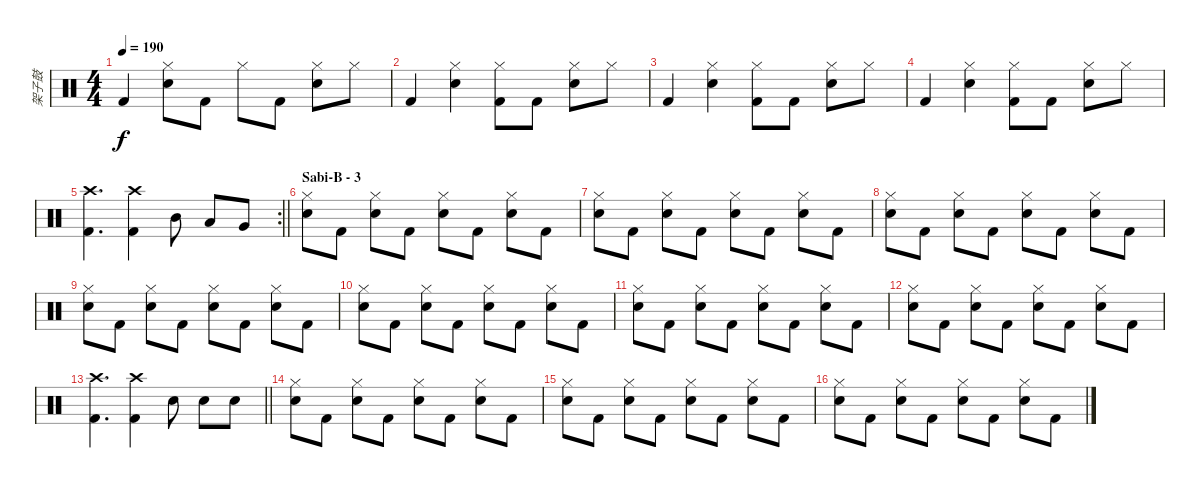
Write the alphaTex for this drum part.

\track ("架子鼓" "架子鼓") {instrument percussion}
\staff {score}
\articulation defaults
\ts (4 4)
\tempo 190
\clef neutral
\ks c "Kick (hit) 2".4{dy f}
("Hi-Hat (closed)" "Electric Snare (hit)").8 "Kick (hit) 2".8 "Hi-Hat (closed)".8 "Kick (hit) 2".8 ("Hi-Hat (closed)" "Electric Snare (hit)").8 "Hi-Hat (closed)".8 |
"Kick (hit) 2".4 ("Hi-Hat (closed)" "Electric Snare (hit)").4 ("Hi-Hat (closed)" "Kick (hit) 2").8 "Kick (hit) 2".8 ("Hi-Hat (closed)" "Electric Snare (hit)").8 "Hi-Hat (closed)".8 |
"Kick (hit) 2".4 ("Hi-Hat (closed)" "Electric Snare (hit)").4 ("Hi-Hat (closed)" "Kick (hit) 2").8 "Kick (hit) 2".8 ("Hi-Hat (closed)" "Electric Snare (hit)").8 "Hi-Hat (closed)".8 |
"Kick (hit) 2".4 ("Hi-Hat (closed)" "Electric Snare (hit)").4 ("Hi-Hat (closed)" "Kick (hit) 2").8 "Kick (hit) 2".8 ("Hi-Hat (closed)" "Electric Snare (hit)").8 "Hi-Hat (closed)".8 |
\rc 2
\barLineRight lightlight
("Crash high (hit)" "Kick (hit) 2").4{d} ("Crash high (hit)" "Kick (hit) 2").4 "Mid Tom (hit)".8 "Low Tom (hit)".8 "Very Low Tom (hit)".8 |
\section ("" "Sabi-B - 3")
("Hi-Hat (closed)" "Electric Snare (hit)").8 "Kick (hit) 2".8 ("Hi-Hat (closed)" "Electric Snare (hit)").8 "Kick (hit) 2".8 ("Hi-Hat (closed)" "Electric Snare (hit)").8 "Kick (hit) 2".8 ("Hi-Hat (closed)" "Electric Snare (hit)").8 "Kick (hit) 2".8 |
("Hi-Hat (closed)" "Electric Snare (hit)").8 "Kick (hit) 2".8 ("Hi-Hat (closed)" "Electric Snare (hit)").8 "Kick (hit) 2".8 ("Hi-Hat (closed)" "Electric Snare (hit)").8 "Kick (hit) 2".8 ("Hi-Hat (closed)" "Electric Snare (hit)").8 "Kick (hit) 2".8 |
("Hi-Hat (closed)" "Electric Snare (hit)").8 "Kick (hit) 2".8 ("Hi-Hat (closed)" "Electric Snare (hit)").8 "Kick (hit) 2".8 ("Hi-Hat (closed)" "Electric Snare (hit)").8 "Kick (hit) 2".8 ("Hi-Hat (closed)" "Electric Snare (hit)").8 "Kick (hit) 2".8 |
("Hi-Hat (closed)" "Electric Snare (hit)").8 "Kick (hit) 2".8 ("Hi-Hat (closed)" "Electric Snare (hit)").8 "Kick (hit) 2".8 ("Hi-Hat (closed)" "Electric Snare (hit)").8 "Kick (hit) 2".8 ("Hi-Hat (closed)" "Electric Snare (hit)").8 "Kick (hit) 2".8 |
("Hi-Hat (closed)" "Electric Snare (hit)").8 "Kick (hit) 2".8 ("Hi-Hat (closed)" "Electric Snare (hit)").8 "Kick (hit) 2".8 ("Hi-Hat (closed)" "Electric Snare (hit)").8 "Kick (hit) 2".8 ("Hi-Hat (closed)" "Electric Snare (hit)").8 "Kick (hit) 2".8 |
("Hi-Hat (closed)" "Electric Snare (hit)").8 "Kick (hit) 2".8 ("Hi-Hat (closed)" "Electric Snare (hit)").8 "Kick (hit) 2".8 ("Hi-Hat (closed)" "Electric Snare (hit)").8 "Kick (hit) 2".8 ("Hi-Hat (closed)" "Electric Snare (hit)").8 "Kick (hit) 2".8 |
("Hi-Hat (closed)" "Electric Snare (hit)").8 "Kick (hit) 2".8 ("Hi-Hat (closed)" "Electric Snare (hit)").8 "Kick (hit) 2".8 ("Hi-Hat (closed)" "Electric Snare (hit)").8 "Kick (hit) 2".8 ("Hi-Hat (closed)" "Electric Snare (hit)").8 "Kick (hit) 2".8 |
\barLineRight lightlight
("Crash high (hit)" "Kick (hit) 2").4{d} ("Crash high (hit)" "Kick (hit) 2").4 "Electric Snare (hit)".8 "Electric Snare (hit)".8 "Electric Snare (hit)".8 |
("Hi-Hat (closed)" "Electric Snare (hit)").8 "Kick (hit) 2".8 ("Hi-Hat (closed)" "Electric Snare (hit)").8 "Kick (hit) 2".8 ("Hi-Hat (closed)" "Electric Snare (hit)").8 "Kick (hit) 2".8 ("Hi-Hat (closed)" "Electric Snare (hit)").8 "Kick (hit) 2".8 |
("Hi-Hat (closed)" "Electric Snare (hit)").8 "Kick (hit) 2".8 ("Hi-Hat (closed)" "Electric Snare (hit)").8 "Kick (hit) 2".8 ("Hi-Hat (closed)" "Electric Snare (hit)").8 "Kick (hit) 2".8 ("Hi-Hat (closed)" "Electric Snare (hit)").8 "Kick (hit) 2".8 |
("Hi-Hat (closed)" "Electric Snare (hit)").8 "Kick (hit) 2".8 ("Hi-Hat (closed)" "Electric Snare (hit)").8 "Kick (hit) 2".8 ("Hi-Hat (closed)" "Electric Snare (hit)").8 "Kick (hit) 2".8 ("Hi-Hat (closed)" "Electric Snare (hit)").8 "Kick (hit) 2".8
